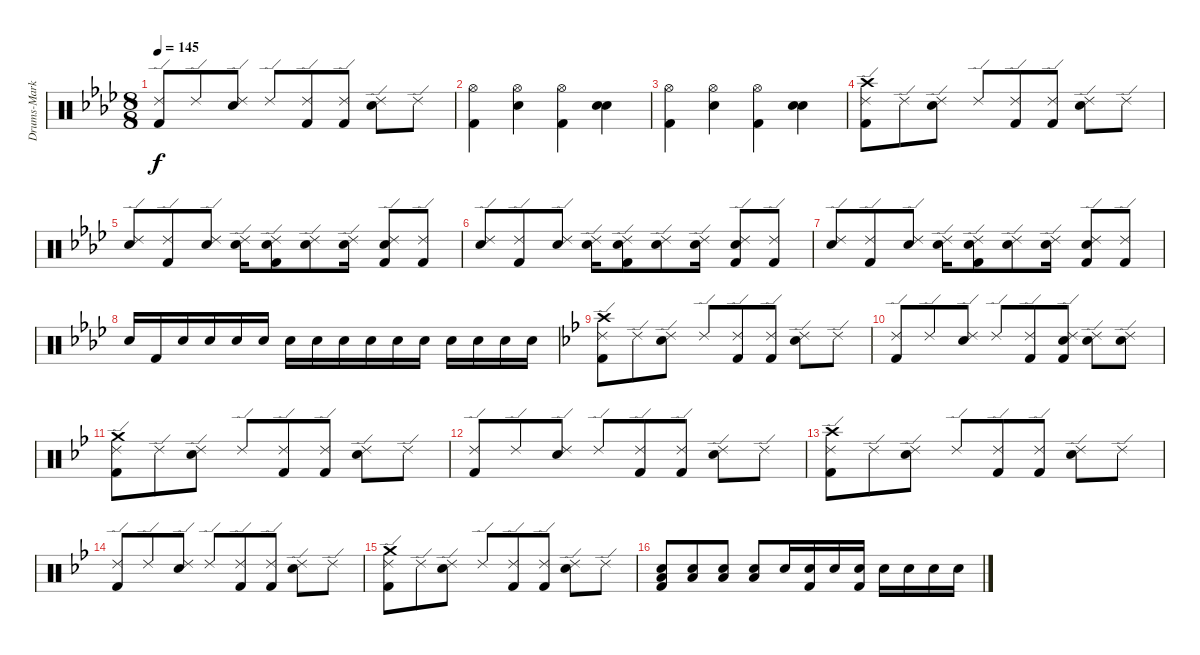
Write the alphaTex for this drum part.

\track ("Drums-Marky" "Drums-Mark") {instrument percussion}
\staff {score}
\articulation defaults
\ts (8 8)
\tempo 145
\clef neutral
\ks ab
("Ride (edge) 2" "Kick (hit) 2").8{dy f} "Ride (edge) 2".8 ("Ride (edge) 2" "Snare (hit) 2").8 "Ride (edge) 2".8 ("Ride (edge) 2" "Kick (hit) 2").8 ("Ride (edge) 2" "Kick (hit) 2").8 ("Ride (edge) 2" "Snare (hit) 2").8 "Ride (edge) 2".8 |
("Hi-Hat (open)" "Kick (hit) 2").4 ("Hi-Hat (open)" "Snare (hit) 2").4 ("Hi-Hat (open)" "Kick (hit) 2").4 ("Snare (hit) 2" "Snare (hit) 2").4 |
("Hi-Hat (open)" "Kick (hit) 2").4 ("Hi-Hat (open)" "Snare (hit) 2").4 ("Hi-Hat (open)" "Kick (hit) 2").4 ("Snare (hit) 2" "Snare (hit) 2").4 |
("Ride (edge) 2" "Kick (hit) 2" "Crash high (hit)").8 "Ride (edge) 2".8 ("Ride (edge) 2" "Snare (hit) 2").8 "Ride (edge) 2".8 ("Ride (edge) 2" "Kick (hit) 2").8 ("Ride (edge) 2" "Kick (hit) 2").8 ("Ride (edge) 2" "Snare (hit) 2").8 "Ride (edge) 2".8 |
("Ride (edge) 2" "Snare (hit) 2").8 ("Ride (edge) 2" "Kick (hit) 2").8 ("Ride (edge) 2" "Snare (hit) 2").8 ("Ride (edge) 2" "Snare (hit) 2").16 ("Ride (edge) 2" "Snare (hit) 2" "Kick (hit) 2").8 ("Ride (edge) 2" "Snare (hit) 2").8 ("Ride (edge) 2" "Snare (hit) 2").16 ("Ride (edge) 2" "Snare (hit) 2" "Kick (hit) 2").8 ("Ride (edge) 2" "Kick (hit) 2").8 |
("Ride (edge) 2" "Snare (hit) 2").8 ("Ride (edge) 2" "Kick (hit) 2").8 ("Ride (edge) 2" "Snare (hit) 2").8 ("Ride (edge) 2" "Snare (hit) 2").16 ("Ride (edge) 2" "Snare (hit) 2" "Kick (hit) 2").8 ("Ride (edge) 2" "Snare (hit) 2").8 ("Ride (edge) 2" "Snare (hit) 2").16 ("Ride (edge) 2" "Snare (hit) 2" "Kick (hit) 2").8 ("Ride (edge) 2" "Kick (hit) 2").8 |
("Ride (edge) 2" "Snare (hit) 2").8 ("Ride (edge) 2" "Kick (hit) 2").8 ("Ride (edge) 2" "Snare (hit) 2").8 ("Ride (edge) 2" "Snare (hit) 2").16 ("Ride (edge) 2" "Snare (hit) 2" "Kick (hit) 2").8 ("Ride (edge) 2" "Snare (hit) 2").8 ("Ride (edge) 2" "Snare (hit) 2").16 ("Ride (edge) 2" "Snare (hit) 2" "Kick (hit) 2").8 ("Ride (edge) 2" "Kick (hit) 2").8 |
"Snare (hit) 2".16 "Kick (hit) 2".16 "Snare (hit) 2".16 "Snare (hit) 2".16 "Snare (hit) 2".16 "Snare (hit) 2".16 "Snare (hit) 2".16 "Snare (hit) 2".16 "Snare (hit) 2".16 "Snare (hit) 2".16 "Snare (hit) 2".16 "Snare (hit) 2".16 "Snare (hit) 2".16 "Snare (hit) 2".16 "Snare (hit) 2".16 "Snare (hit) 2".16 |
\ks bb
("Ride (edge) 2" "Kick (hit) 2" "Crash high (hit)").8 "Ride (edge) 2".8 ("Ride (edge) 2" "Snare (hit) 2").8 "Ride (edge) 2".8 ("Ride (edge) 2" "Kick (hit) 2").8 ("Ride (edge) 2" "Kick (hit) 2").8 ("Ride (edge) 2" "Snare (hit) 2").8 "Ride (edge) 2".8 |
("Ride (edge) 2" "Kick (hit) 2").8 "Ride (edge) 2".8 ("Ride (edge) 2" "Snare (hit) 2").8 "Ride (edge) 2".8 ("Ride (edge) 2" "Kick (hit) 2").8 ("Ride (edge) 2" "Snare (hit) 2" "Kick (hit) 2").8 ("Ride (edge) 2" "Snare (hit) 2").8 ("Ride (edge) 2" "Snare (hit) 2").8 |
("Ride (edge) 2" "Kick (hit) 2" "Crash medium (hit)").8 "Ride (edge) 2".8 ("Ride (edge) 2" "Snare (hit) 2").8 "Ride (edge) 2".8 ("Ride (edge) 2" "Kick (hit) 2").8 ("Ride (edge) 2" "Kick (hit) 2").8 ("Ride (edge) 2" "Snare (hit) 2").8 "Ride (edge) 2".8 |
("Ride (edge) 2" "Kick (hit) 2").8 "Ride (edge) 2".8 ("Ride (edge) 2" "Snare (hit) 2").8 "Ride (edge) 2".8 ("Ride (edge) 2" "Kick (hit) 2").8 ("Ride (edge) 2" "Kick (hit) 2").8 ("Ride (edge) 2" "Snare (hit) 2").8 "Ride (edge) 2".8 |
("Ride (edge) 2" "Kick (hit) 2" "Crash high (hit)").8 "Ride (edge) 2".8 ("Ride (edge) 2" "Snare (hit) 2").8 "Ride (edge) 2".8 ("Ride (edge) 2" "Kick (hit) 2").8 ("Ride (edge) 2" "Kick (hit) 2").8 ("Ride (edge) 2" "Snare (hit) 2").8 "Ride (edge) 2".8 |
("Ride (edge) 2" "Kick (hit) 2").8 "Ride (edge) 2".8 ("Ride (edge) 2" "Snare (hit) 2").8 "Ride (edge) 2".8 ("Ride (edge) 2" "Kick (hit) 2").8 ("Ride (edge) 2" "Kick (hit) 2").8 ("Ride (edge) 2" "Snare (hit) 2").8 "Ride (edge) 2".8 |
("Ride (edge) 2" "Kick (hit) 2" "Crash medium (hit)").8 "Ride (edge) 2".8 ("Ride (edge) 2" "Snare (hit) 2").8 "Ride (edge) 2".8 ("Ride (edge) 2" "Kick (hit) 2").8 ("Ride (edge) 2" "Kick (hit) 2").8 ("Ride (edge) 2" "Snare (hit) 2").8 "Ride (edge) 2".8 |
("Low Floor Tom (hit)" "Kick (hit) 2" "Snare (hit) 2").8 ("Low Floor Tom (hit)" "Snare (hit) 2").8 ("Low Floor Tom (hit)" "Snare (hit) 2").8 ("Low Floor Tom (hit)" "Snare (hit) 2").8 "Snare (hit) 2".16 ("Snare (hit) 2" "Kick (hit) 2").16 "Snare (hit) 2".16 ("Snare (hit) 2" "Kick (hit) 2").16 "Snare (hit) 2".16 "Snare (hit) 2".16 "Snare (hit) 2".16 "Snare (hit) 2".16
